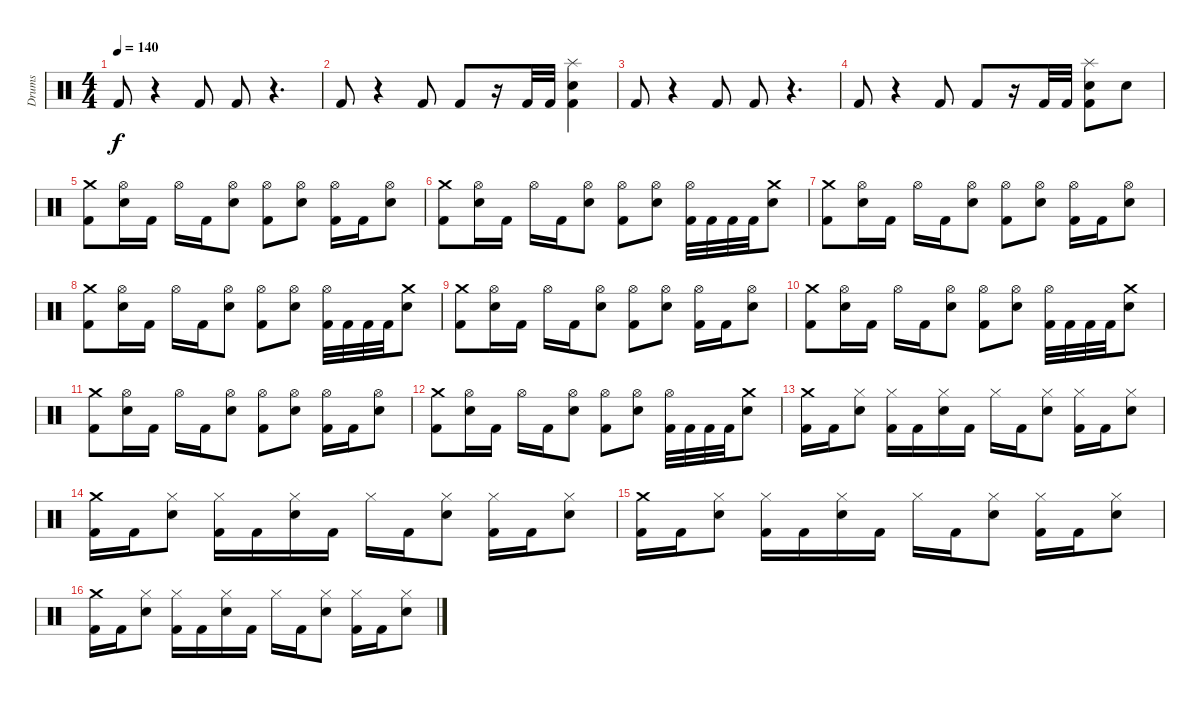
\track ("Drums" "Drums") {instrument percussion}
\staff {score}
\articulation defaults
\ts (4 4)
\tempo 140
\clef neutral
\ks c "Kick (hit) 2".8{dy f}
r.4 "Kick (hit) 2".8 "Kick (hit) 2".8 r.4{d} |
"Kick (hit) 2".8 r.4 "Kick (hit) 2".8 "Kick (hit) 2".8 r.16 "Kick (hit) 2".32 "Kick (hit) 2".32 ("Electric Snare (hit)" "Splash (hit)" "Kick (hit) 2").4 |
"Kick (hit) 2".8 r.4 "Kick (hit) 2".8 "Kick (hit) 2".8 r.4{d} |
"Kick (hit) 2".8 r.4 "Kick (hit) 2".8 "Kick (hit) 2".8 r.16 "Kick (hit) 2".32 "Kick (hit) 2".32 ("Electric Snare (hit)" "Splash (hit)" "Kick (hit) 2").8 "Electric Snare (hit)".8 |
("Crash medium (hit)" "Kick (hit) 2").8 ("Hi-Hat (open)" "Electric Snare (hit)").16 "Kick (hit) 2".16 "Hi-Hat (open)".16 "Kick (hit) 2".16 ("Hi-Hat (open)" "Electric Snare (hit)").8 ("Hi-Hat (open)" "Kick (hit) 2").8 ("Hi-Hat (open)" "Electric Snare (hit)").8 ("Hi-Hat (open)" "Kick (hit) 2").16 "Kick (hit) 2".16 ("Hi-Hat (open)" "Electric Snare (hit)").8 |
("Crash medium (hit)" "Kick (hit) 2").8 ("Hi-Hat (open)" "Electric Snare (hit)").16 "Kick (hit) 2".16 "Hi-Hat (open)".16 "Kick (hit) 2".16 ("Hi-Hat (open)" "Electric Snare (hit)").8 ("Hi-Hat (open)" "Kick (hit) 2").8 ("Hi-Hat (open)" "Electric Snare (hit)").8 ("Hi-Hat (open)" "Kick (hit) 2").32 "Kick (hit) 2".32 "Kick (hit) 2".32 "Kick (hit) 2".32 ("Crash medium (hit)" "Electric Snare (hit)").8 |
("Crash medium (hit)" "Kick (hit) 2").8 ("Hi-Hat (open)" "Electric Snare (hit)").16 "Kick (hit) 2".16 "Hi-Hat (open)".16 "Kick (hit) 2".16 ("Hi-Hat (open)" "Electric Snare (hit)").8 ("Hi-Hat (open)" "Kick (hit) 2").8 ("Hi-Hat (open)" "Electric Snare (hit)").8 ("Hi-Hat (open)" "Kick (hit) 2").16 "Kick (hit) 2".16 ("Hi-Hat (open)" "Electric Snare (hit)").8 |
("Crash medium (hit)" "Kick (hit) 2").8 ("Hi-Hat (open)" "Electric Snare (hit)").16 "Kick (hit) 2".16 "Hi-Hat (open)".16 "Kick (hit) 2".16 ("Hi-Hat (open)" "Electric Snare (hit)").8 ("Hi-Hat (open)" "Kick (hit) 2").8 ("Hi-Hat (open)" "Electric Snare (hit)").8 ("Hi-Hat (open)" "Kick (hit) 2").32 "Kick (hit) 2".32 "Kick (hit) 2".32 "Kick (hit) 2".32 ("Crash medium (hit)" "Electric Snare (hit)").8 |
("Crash medium (hit)" "Kick (hit) 2").8 ("Hi-Hat (open)" "Electric Snare (hit)").16 "Kick (hit) 2".16 "Hi-Hat (open)".16 "Kick (hit) 2".16 ("Hi-Hat (open)" "Electric Snare (hit)").8 ("Hi-Hat (open)" "Kick (hit) 2").8 ("Hi-Hat (open)" "Electric Snare (hit)").8 ("Hi-Hat (open)" "Kick (hit) 2").16 "Kick (hit) 2".16 ("Hi-Hat (open)" "Electric Snare (hit)").8 |
("Crash medium (hit)" "Kick (hit) 2").8 ("Hi-Hat (open)" "Electric Snare (hit)").16 "Kick (hit) 2".16 "Hi-Hat (open)".16 "Kick (hit) 2".16 ("Hi-Hat (open)" "Electric Snare (hit)").8 ("Hi-Hat (open)" "Kick (hit) 2").8 ("Hi-Hat (open)" "Electric Snare (hit)").8 ("Hi-Hat (open)" "Kick (hit) 2").32 "Kick (hit) 2".32 "Kick (hit) 2".32 "Kick (hit) 2".32 ("Crash medium (hit)" "Electric Snare (hit)").8 |
("Crash medium (hit)" "Kick (hit) 2").8 ("Hi-Hat (open)" "Electric Snare (hit)").16 "Kick (hit) 2".16 "Hi-Hat (open)".16 "Kick (hit) 2".16 ("Hi-Hat (open)" "Electric Snare (hit)").8 ("Hi-Hat (open)" "Kick (hit) 2").8 ("Hi-Hat (open)" "Electric Snare (hit)").8 ("Hi-Hat (open)" "Kick (hit) 2").16 "Kick (hit) 2".16 ("Hi-Hat (open)" "Electric Snare (hit)").8 |
("Crash medium (hit)" "Kick (hit) 2").8 ("Hi-Hat (open)" "Electric Snare (hit)").16 "Kick (hit) 2".16 "Hi-Hat (open)".16 "Kick (hit) 2".16 ("Hi-Hat (open)" "Electric Snare (hit)").8 ("Hi-Hat (open)" "Kick (hit) 2").8 ("Hi-Hat (open)" "Electric Snare (hit)").8 ("Hi-Hat (open)" "Kick (hit) 2").32 "Kick (hit) 2".32 "Kick (hit) 2".32 "Kick (hit) 2".32 ("Crash medium (hit)" "Electric Snare (hit)").8 |
("Kick (hit) 2" "Crash medium (hit)").16 "Kick (hit) 2".16 ("Electric Snare (hit)" "Hi-Hat (closed)").8 ("Kick (hit) 2" "Hi-Hat (closed)").16 "Kick (hit) 2".16 ("Electric Snare (hit)" "Hi-Hat (closed)").16 "Kick (hit) 2".16 "Hi-Hat (closed)".16 "Kick (hit) 2".16 ("Electric Snare (hit)" "Hi-Hat (closed)").8 ("Kick (hit) 2" "Hi-Hat (closed)").16 "Kick (hit) 2".16 ("Electric Snare (hit)" "Hi-Hat (closed)").8 |
("Kick (hit) 2" "Crash medium (hit)").16 "Kick (hit) 2".16 ("Electric Snare (hit)" "Hi-Hat (closed)").8 ("Kick (hit) 2" "Hi-Hat (closed)").16 "Kick (hit) 2".16 ("Electric Snare (hit)" "Hi-Hat (closed)").16 "Kick (hit) 2".16 "Hi-Hat (closed)".16 "Kick (hit) 2".16 ("Electric Snare (hit)" "Hi-Hat (closed)").8 ("Kick (hit) 2" "Hi-Hat (closed)").16 "Kick (hit) 2".16 ("Electric Snare (hit)" "Hi-Hat (closed)").8 |
("Kick (hit) 2" "Crash medium (hit)").16 "Kick (hit) 2".16 ("Electric Snare (hit)" "Hi-Hat (closed)").8 ("Kick (hit) 2" "Hi-Hat (closed)").16 "Kick (hit) 2".16 ("Electric Snare (hit)" "Hi-Hat (closed)").16 "Kick (hit) 2".16 "Hi-Hat (closed)".16 "Kick (hit) 2".16 ("Electric Snare (hit)" "Hi-Hat (closed)").8 ("Kick (hit) 2" "Hi-Hat (closed)").16 "Kick (hit) 2".16 ("Electric Snare (hit)" "Hi-Hat (closed)").8 |
("Kick (hit) 2" "Crash medium (hit)").16 "Kick (hit) 2".16 ("Electric Snare (hit)" "Hi-Hat (closed)").8 ("Kick (hit) 2" "Hi-Hat (closed)").16 "Kick (hit) 2".16 ("Electric Snare (hit)" "Hi-Hat (closed)").16 "Kick (hit) 2".16 "Hi-Hat (closed)".16 "Kick (hit) 2".16 ("Electric Snare (hit)" "Hi-Hat (closed)").8 ("Kick (hit) 2" "Hi-Hat (closed)").16 "Kick (hit) 2".16 ("Electric Snare (hit)" "Hi-Hat (closed)").8
